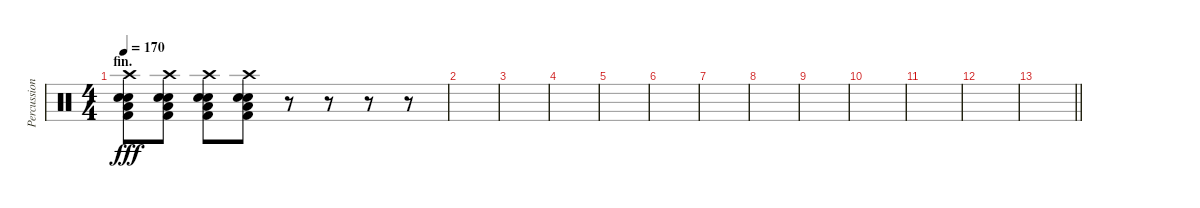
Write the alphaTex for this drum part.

\track ("Percussion" "Percussion") {instrument percussion}
\staff {score}
\articulation defaults
\ts (4 4)
\section ("" "fin.")
\tempo 170
\clef neutral
\ks c
("Crash high (hit)" "Electric Snare (hit)" "Low Floor Tom (hit)" "Snare (hit) 2" "Kick (hit) 2").8{dy fff} ("Crash high (hit)" "Electric Snare (hit)" "Low Floor Tom (hit)" "Snare (hit) 2" "Kick (hit) 2").8 ("Crash high (hit)" "Electric Snare (hit)" "Low Floor Tom (hit)" "Snare (hit) 2" "Kick (hit) 2").8 ("Crash high (hit)" "Electric Snare (hit)" "Low Floor Tom (hit)" "Snare (hit) 2" "Kick (hit) 2").8 r.8 r.8 r.8 r.8 |
|
|
|
|
|
|
|
|
|
|
|
\barLineRight lightlight
